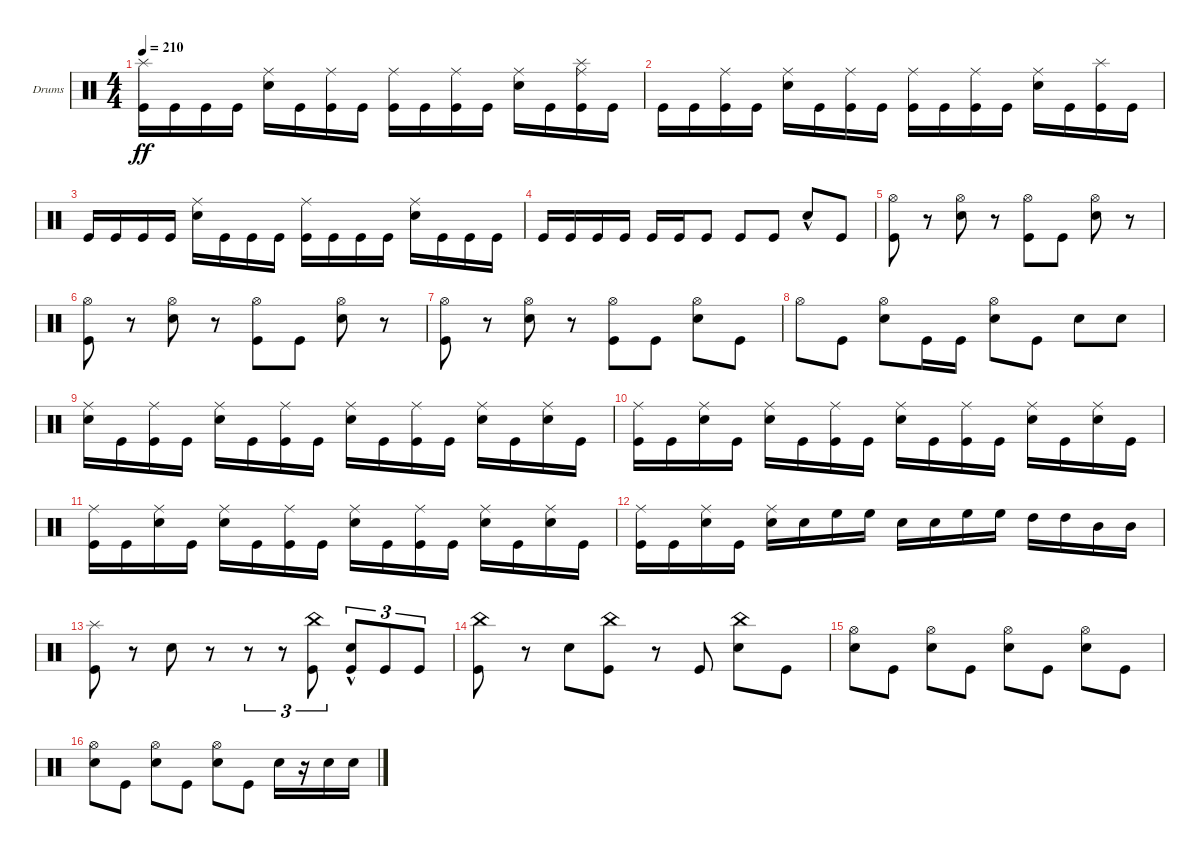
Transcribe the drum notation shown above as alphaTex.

\bracketExtendMode groupsimilarinstruments
\firstSystemTrackNameOrientation horizontal
\otherSystemsTrackNameOrientation horizontal
\track ("Drumkit" "Drums") {instrument percussion}
\staff {score}
\articulation defaults
\ts (4 4)
\tempo 210
\clef neutral
\ks c
("Kick (hit)" "Splash (hit)").16{dy ff} "Kick (hit)".16 "Kick (hit)".16 "Kick (hit)".16 ("Snare (hit) 2" "Ride (middle)").16 "Kick (hit)".16 ("Kick (hit)" "Ride (middle)").16 "Kick (hit)".16 ("Kick (hit)" "Ride (middle)").16 "Kick (hit)".16 ("Kick (hit)" "Ride (middle)").16 "Kick (hit)".16 ("Snare (hit) 2" "Ride (middle)").16 "Kick (hit)".16 ("Kick (hit)" "Ride (middle)" "Splash (hit)").16 "Kick (hit)".16 |
"Kick (hit)".16 "Kick (hit)".16 ("Kick (hit)" "Ride (middle)").16 "Kick (hit)".16 ("Snare (hit) 2" "Ride (middle)").16 "Kick (hit)".16 ("Kick (hit)" "Ride (middle)").16 "Kick (hit)".16 ("Kick (hit)" "Ride (middle)").16 "Kick (hit)".16 ("Kick (hit)" "Ride (middle)").16 "Kick (hit)".16 ("Snare (hit) 2" "Ride (middle)").16 "Kick (hit)".16 ("Kick (hit)" "Splash (hit)").16 "Kick (hit)".16 |
"Kick (hit)".16 "Kick (hit)".16 "Kick (hit)".16 "Kick (hit)".16 ("Snare (hit) 2" "Ride (middle)").16 "Kick (hit)".16 "Kick (hit)".16 "Kick (hit)".16 ("Kick (hit)" "Ride (middle)").16 "Kick (hit)".16 "Kick (hit)".16 "Kick (hit)".16 ("Snare (hit) 2" "Ride (middle)").16 "Kick (hit)".16 "Kick (hit)".16 "Kick (hit)".16 |
"Kick (hit)".16 "Kick (hit)".16 "Kick (hit)".16 "Kick (hit)".16 "Kick (hit)".16 "Kick (hit)".16 "Kick (hit)".8 "Kick (hit)".8 "Kick (hit)".8 "Snare (hit) 2"{hac}.8 "Kick (hit)".8 |
("Kick (hit)" "Hi-Hat (open)").8 r.8 ("Snare (hit) 2" "Hi-Hat (open)").8 r.8 ("Kick (hit)" "Hi-Hat (open)").8 "Kick (hit)".8 ("Snare (hit) 2" "Hi-Hat (open)").8 r.8 |
("Kick (hit)" "Hi-Hat (open)").8 r.8 ("Snare (hit) 2" "Hi-Hat (open)").8 r.8 ("Kick (hit)" "Hi-Hat (open)").8 "Kick (hit)".8 ("Snare (hit) 2" "Hi-Hat (open)").8 r.8 |
("Kick (hit)" "Hi-Hat (open)").8 r.8 ("Snare (hit) 2" "Hi-Hat (open)").8 r.8 ("Kick (hit)" "Hi-Hat (open)").8 "Kick (hit)".8 ("Snare (hit) 2" "Hi-Hat (open)").8 "Kick (hit)".8 |
"Hi-Hat (open)".8 "Kick (hit)".8 ("Snare (hit) 2" "Hi-Hat (open)").8 "Kick (hit)".16 "Kick (hit)".16 ("Snare (hit) 2" "Hi-Hat (open)").8 "Kick (hit)".8 "Snare (hit) 2".8 "Snare (hit) 2".8 |
("Snare (hit) 2" "Ride (middle)").16 "Kick (hit)".16 ("Kick (hit)" "Ride (middle)").16 "Kick (hit)".16 ("Snare (hit) 2" "Ride (middle)").16 "Kick (hit)".16 ("Kick (hit)" "Ride (middle)").16 "Kick (hit)".16 ("Ride (middle)" "Snare (hit) 2").16 "Kick (hit)".16 ("Kick (hit)" "Ride (middle)").16 "Kick (hit)".16 ("Snare (hit) 2" "Ride (middle)").16 "Kick (hit)".16 ("Ride (middle)" "Snare (hit) 2").16 "Kick (hit)".16 |
("Kick (hit)" "Ride (middle)").16 "Kick (hit)".16 ("Snare (hit) 2" "Ride (middle)").16 "Kick (hit)".16 ("Snare (hit) 2" "Ride (middle)").16 "Kick (hit)".16 ("Kick (hit)" "Ride (middle)").16 "Kick (hit)".16 ("Ride (middle)" "Snare (hit) 2").16 "Kick (hit)".16 ("Kick (hit)" "Ride (middle)").16 "Kick (hit)".16 ("Snare (hit) 2" "Ride (middle)").16 "Kick (hit)".16 ("Ride (middle)" "Snare (hit) 2").16 "Kick (hit)".16 |
("Kick (hit)" "Ride (middle)").16 "Kick (hit)".16 ("Snare (hit) 2" "Ride (middle)").16 "Kick (hit)".16 ("Snare (hit) 2" "Ride (middle)").16 "Kick (hit)".16 ("Kick (hit)" "Ride (middle)").16 "Kick (hit)".16 ("Ride (middle)" "Snare (hit) 2").16 "Kick (hit)".16 ("Kick (hit)" "Ride (middle)").16 "Kick (hit)".16 ("Snare (hit) 2" "Ride (middle)").16 "Kick (hit)".16 ("Ride (middle)" "Snare (hit) 2").16 "Kick (hit)".16 |
("Kick (hit)" "Ride (middle)").16 "Kick (hit)".16 ("Snare (hit) 2" "Ride (middle)").16 "Kick (hit)".16 ("Snare (hit) 2" "Ride (middle)").16 "Snare (hit) 2".16 "High Floor Tom (hit)".16 "High Floor Tom (hit)".16 "Snare (hit) 2".16 "Snare (hit) 2".16 "High Floor Tom (hit)".16 "High Floor Tom (hit)".16 "High Tom (hit)".16 "High Tom (hit)".16 "Mid Tom (hit)".16 "Mid Tom (hit)".16 |
("Kick (hit)" "Splash (hit)").8 r.8 "Snare (hit) 2".8 r.8 r.8{tu (3 2)} r.8{tu (3 2)} ("Kick (hit)" "China (hit)").8{tu (3 2)} ("Kick (hit)" "Snare (hit) 2"{hac}).8{tu (3 2)} "Kick (hit)".8{tu (3 2)} "Kick (hit)".8{tu (3 2)} |
("Kick (hit)" "China (hit)").8 r.8 "Snare (hit) 2".8 ("Kick (hit)" "China (hit)").8 r.8 "Kick (hit)".8 ("Snare (hit) 2" "China (hit)").8 "Kick (hit)".8 |
("Snare (hit) 2" "Hi-Hat (open)").8 "Kick (hit)".8 ("Snare (hit) 2" "Hi-Hat (open)").8 "Kick (hit)".8 ("Snare (hit) 2" "Hi-Hat (open)").8 "Kick (hit)".8 ("Snare (hit) 2" "Hi-Hat (open)").8 "Kick (hit)".8 |
("Snare (hit) 2" "Hi-Hat (open)").8 "Kick (hit)".8 ("Snare (hit) 2" "Hi-Hat (open)").8 "Kick (hit)".8 ("Snare (hit) 2" "Hi-Hat (open)").8 "Kick (hit)".8 "Snare (hit) 2".16 r.16 "Snare (hit) 2".16 "Snare (hit) 2".16
